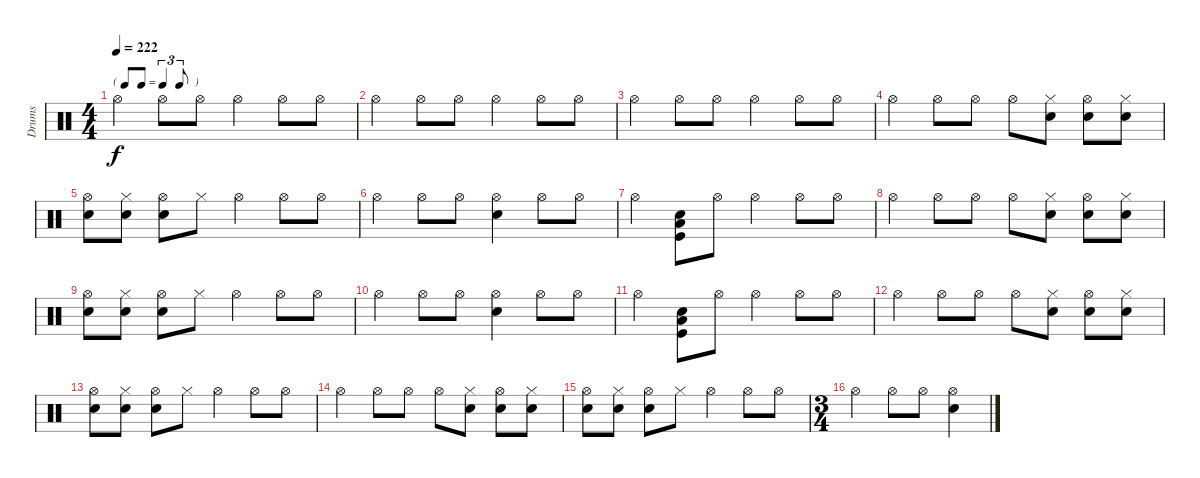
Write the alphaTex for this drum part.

\track ("Drums" "Drums") {instrument percussion}
\staff {score}
\articulation defaults
\ts (4 4)
\tf triplet8th
\tempo 222
\clef neutral
\ks c "Hi-Hat (open)".4{dy f} "Hi-Hat (open)".8 "Hi-Hat (open)".8 "Hi-Hat (open)".4 "Hi-Hat (open)".8 "Hi-Hat (open)".8
|
"Hi-Hat (open)".4 "Hi-Hat (open)".8 "Hi-Hat (open)".8 "Hi-Hat (open)".4 "Hi-Hat (open)".8 "Hi-Hat (open)".8 |
"Hi-Hat (open)".4 "Hi-Hat (open)".8 "Hi-Hat (open)".8 "Hi-Hat (open)".4 "Hi-Hat (open)".8 "Hi-Hat (open)".8 |
"Hi-Hat (open)".4 "Hi-Hat (open)".8 "Hi-Hat (open)".8 "Hi-Hat (open)".8 ("Hi-Hat (closed)" "Snare (hit) 2").8 ("Snare (hit) 2" "Hi-Hat (open)").8 ("Hi-Hat (closed)" "Snare (hit) 2").8 |
("Snare (hit) 2" "Hi-Hat (open)").8 ("Snare (hit) 2" "Hi-Hat (closed)").8 ("Snare (hit) 2" "Hi-Hat (open)").8 "Hi-Hat (closed)".8 "Hi-Hat (open)".4 "Hi-Hat (open)".8 "Hi-Hat (open)".8 |
"Hi-Hat (open)".4 "Hi-Hat (open)".8 "Hi-Hat (open)".8 ("Snare (hit) 2" "Hi-Hat (open)").4 "Hi-Hat (open)".8 "Hi-Hat (open)".8 |
"Hi-Hat (open)".4 ("Kick (hit)" "Snare (hit) 2" "Low Floor Tom (hit)").8 "Hi-Hat (open)".8 "Hi-Hat (open)".4 "Hi-Hat (open)".8 "Hi-Hat (open)".8 |
"Hi-Hat (open)".4 "Hi-Hat (open)".8 "Hi-Hat (open)".8 "Hi-Hat (open)".8 ("Hi-Hat (closed)" "Snare (hit) 2").8 ("Snare (hit) 2" "Hi-Hat (open)").8 ("Hi-Hat (closed)" "Snare (hit) 2").8 |
("Snare (hit) 2" "Hi-Hat (open)").8 ("Snare (hit) 2" "Hi-Hat (closed)").8 ("Snare (hit) 2" "Hi-Hat (open)").8 "Hi-Hat (closed)".8 "Hi-Hat (open)".4 "Hi-Hat (open)".8 "Hi-Hat (open)".8 |
"Hi-Hat (open)".4 "Hi-Hat (open)".8 "Hi-Hat (open)".8 ("Snare (hit) 2" "Hi-Hat (open)").4 "Hi-Hat (open)".8 "Hi-Hat (open)".8 |
"Hi-Hat (open)".4 ("Kick (hit)" "Snare (hit) 2" "Low Floor Tom (hit)").8 "Hi-Hat (open)".8 "Hi-Hat (open)".4 "Hi-Hat (open)".8 "Hi-Hat (open)".8 |
"Hi-Hat (open)".4 "Hi-Hat (open)".8 "Hi-Hat (open)".8 "Hi-Hat (open)".8 ("Hi-Hat (closed)" "Snare (hit) 2").8 ("Snare (hit) 2" "Hi-Hat (open)").8 ("Hi-Hat (closed)" "Snare (hit) 2").8 |
("Snare (hit) 2" "Hi-Hat (open)").8 ("Snare (hit) 2" "Hi-Hat (closed)").8 ("Snare (hit) 2" "Hi-Hat (open)").8 "Hi-Hat (closed)".8 "Hi-Hat (open)".4 "Hi-Hat (open)".8 "Hi-Hat (open)".8 |
"Hi-Hat (open)".4 "Hi-Hat (open)".8 "Hi-Hat (open)".8 "Hi-Hat (open)".8 ("Hi-Hat (closed)" "Snare (hit) 2").8 ("Snare (hit) 2" "Hi-Hat (open)").8 ("Hi-Hat (closed)" "Snare (hit) 2").8 |
("Snare (hit) 2" "Hi-Hat (open)").8 ("Snare (hit) 2" "Hi-Hat (closed)").8 ("Snare (hit) 2" "Hi-Hat (open)").8 "Hi-Hat (closed)".8 "Hi-Hat (open)".4 "Hi-Hat (open)".8 "Hi-Hat (open)".8 |
\ts (3 4)
"Hi-Hat (open)".4 "Hi-Hat (open)".8 "Hi-Hat (open)".8 ("Snare (hit) 2" "Hi-Hat (open)").4
